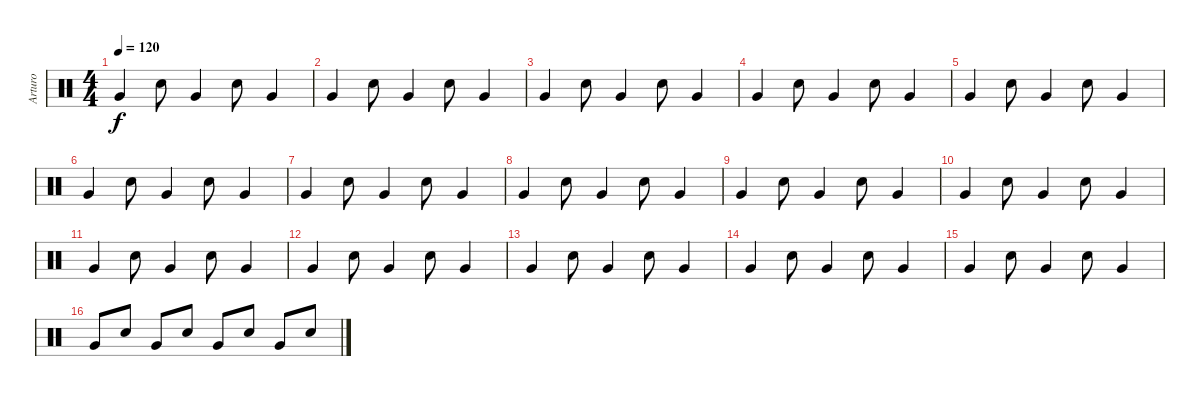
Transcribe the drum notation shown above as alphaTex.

\track ("Arturo" "Arturo") {instrument percussion}
\staff {score}
\articulation defaults
\ts (4 4)
\tempo 120
\clef neutral
\ks c "Very Low Tom (hit)".4{dy f} "Electric Snare (hit)".8 "Very Low Tom (hit)".4 "Electric Snare (hit)".8 "Very Low Tom (hit)".4
|
"Very Low Tom (hit)".4 "Electric Snare (hit)".8 "Very Low Tom (hit)".4 "Electric Snare (hit)".8 "Very Low Tom (hit)".4 |
"Very Low Tom (hit)".4 "Electric Snare (hit)".8 "Very Low Tom (hit)".4 "Electric Snare (hit)".8 "Very Low Tom (hit)".4 |
"Very Low Tom (hit)".4 "Electric Snare (hit)".8 "Very Low Tom (hit)".4 "Electric Snare (hit)".8 "Very Low Tom (hit)".4 |
"Very Low Tom (hit)".4 "Electric Snare (hit)".8 "Very Low Tom (hit)".4 "Electric Snare (hit)".8 "Very Low Tom (hit)".4 |
"Very Low Tom (hit)".4 "Electric Snare (hit)".8 "Very Low Tom (hit)".4 "Electric Snare (hit)".8 "Very Low Tom (hit)".4 |
"Very Low Tom (hit)".4 "Electric Snare (hit)".8 "Very Low Tom (hit)".4 "Electric Snare (hit)".8 "Very Low Tom (hit)".4 |
"Very Low Tom (hit)".4 "Electric Snare (hit)".8 "Very Low Tom (hit)".4 "Electric Snare (hit)".8 "Very Low Tom (hit)".4 |
"Very Low Tom (hit)".4 "Electric Snare (hit)".8 "Very Low Tom (hit)".4 "Electric Snare (hit)".8 "Very Low Tom (hit)".4 |
"Very Low Tom (hit)".4 "Electric Snare (hit)".8 "Very Low Tom (hit)".4 "Electric Snare (hit)".8 "Very Low Tom (hit)".4 |
"Very Low Tom (hit)".4 "Electric Snare (hit)".8 "Very Low Tom (hit)".4 "Electric Snare (hit)".8 "Very Low Tom (hit)".4 |
"Very Low Tom (hit)".4 "Electric Snare (hit)".8 "Very Low Tom (hit)".4 "Electric Snare (hit)".8 "Very Low Tom (hit)".4 |
"Very Low Tom (hit)".4 "Electric Snare (hit)".8 "Very Low Tom (hit)".4 "Electric Snare (hit)".8 "Very Low Tom (hit)".4 |
"Very Low Tom (hit)".4 "Electric Snare (hit)".8 "Very Low Tom (hit)".4 "Electric Snare (hit)".8 "Very Low Tom (hit)".4 |
"Very Low Tom (hit)".4 "Electric Snare (hit)".8 "Very Low Tom (hit)".4 "Electric Snare (hit)".8 "Very Low Tom (hit)".4 |
"Very Low Tom (hit)".8 "Electric Snare (hit)".8 "Very Low Tom (hit)".8 "Electric Snare (hit)".8 "Very Low Tom (hit)".8 "Electric Snare (hit)".8 "Very Low Tom (hit)".8 "Electric Snare (hit)".8
